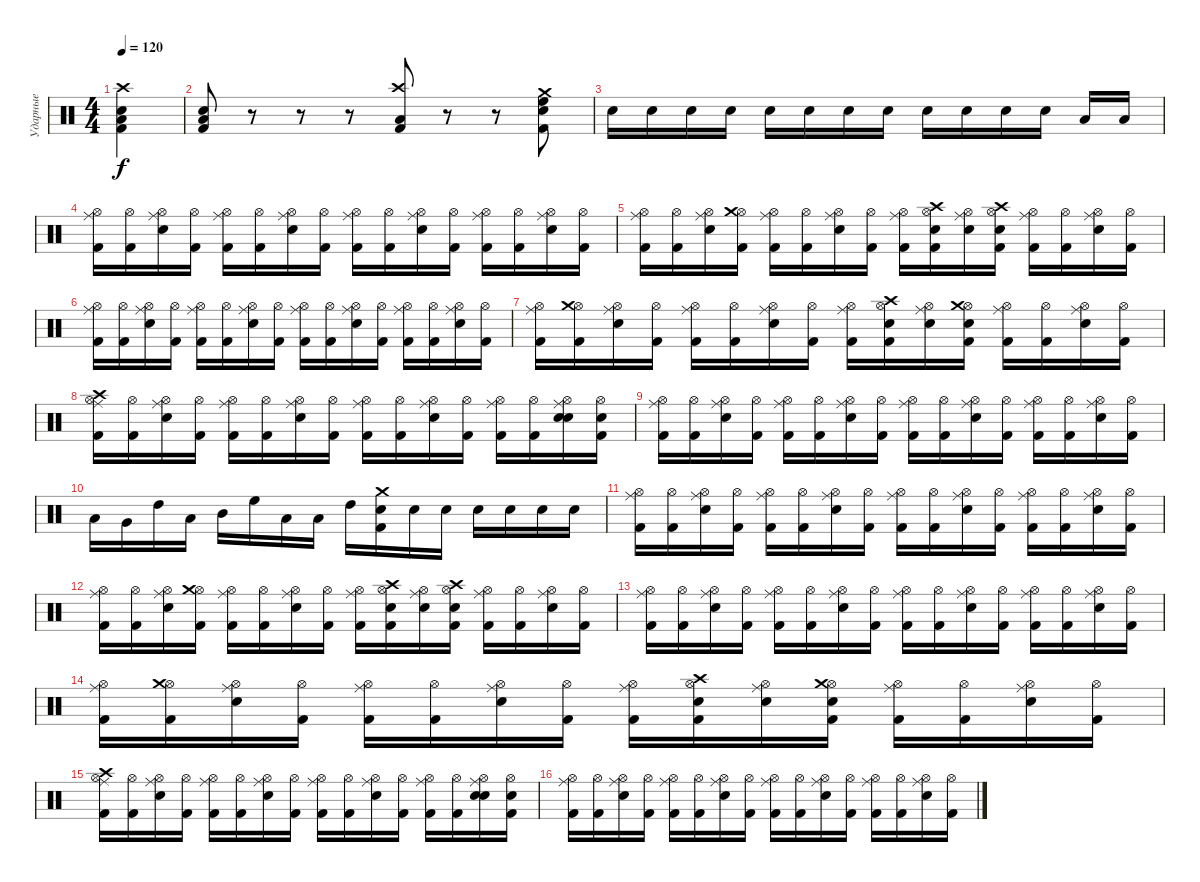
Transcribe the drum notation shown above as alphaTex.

\track ("Ударные" "Ударные") {instrument percussion}
\staff {score}
\articulation defaults
\ts (4 4)
\tempo 120
\clef neutral
\ks c
("Kick (hit) 2" "Snare (hit) 2" "Low Floor Tom (hit)" "Crash high (hit)").4{dy f} |
("Low Floor Tom (hit)" "Electric Snare (hit)" "Kick (hit) 2").8 r.8 r.8 r.8 ("Kick (hit) 2" "Low Tom (hit)" "Crash high (hit)").8 r.8 r.8 ("Kick (hit) 2" "Snare (hit) 2" "High Floor Tom (hit)" "Crash medium (hit)").8 |
"Electric Snare (hit)".16 "Electric Snare (hit)".16 "Electric Snare (hit)".16 "Electric Snare (hit)".16 "Electric Snare (hit)".16 "Electric Snare (hit)".16 "Electric Snare (hit)".16 "Electric Snare (hit)".16 "Electric Snare (hit)".16 "Electric Snare (hit)".16 "Electric Snare (hit)".16 "Electric Snare (hit)".16 "Low Floor Tom (hit)".16 "Low Tom (hit)".16 |
("Hi-Hat (open)" "Ride (middle)" "Kick (hit) 2").16 ("Hi-Hat (open)" "Kick (hit) 2").16 ("Hi-Hat (open)" "Ride (middle)" "Snare (hit) 2").16 ("Hi-Hat (open)" "Kick (hit) 2").16 ("Hi-Hat (open)" "Ride (middle)" "Kick (hit) 2").16 ("Hi-Hat (open)" "Kick (hit) 2").16 ("Hi-Hat (open)" "Ride (middle)" "Snare (hit) 2").16 ("Hi-Hat (open)" "Kick (hit) 2").16 ("Hi-Hat (open)" "Ride (middle)" "Kick (hit) 2").16 ("Hi-Hat (open)" "Kick (hit) 2").16 ("Hi-Hat (open)" "Ride (middle)" "Snare (hit) 2").16 ("Hi-Hat (open)" "Kick (hit) 2").16 ("Hi-Hat (open)" "Ride (middle)" "Kick (hit) 2").16 ("Hi-Hat (open)" "Kick (hit) 2").16 ("Hi-Hat (open)" "Ride (middle)" "Snare (hit) 2").16 ("Hi-Hat (open)" "Kick (hit) 2").16 |
("Hi-Hat (open)" "Ride (middle)" "Kick (hit) 2").16 ("Hi-Hat (open)" "Kick (hit) 2").16 ("Hi-Hat (open)" "Ride (middle)" "Snare (hit) 2").16 ("Hi-Hat (open)" "Kick (hit) 2" "Crash medium (hit)").16 ("Hi-Hat (open)" "Ride (middle)" "Kick (hit) 2").16 ("Hi-Hat (open)" "Kick (hit) 2").16 ("Hi-Hat (open)" "Ride (middle)" "Snare (hit) 2").16 ("Hi-Hat (open)" "Kick (hit) 2").16 ("Hi-Hat (open)" "Ride (middle)" "Kick (hit) 2").16 ("Hi-Hat (open)" "Kick (hit) 2" "Crash high (hit)" "Snare (hit) 2").16 ("Hi-Hat (open)" "Ride (middle)" "Snare (hit) 2").16 ("Hi-Hat (open)" "Kick (hit) 2" "Crash high (hit)" "Snare (hit) 2").16 ("Hi-Hat (open)" "Ride (middle)" "Kick (hit) 2").16 ("Hi-Hat (open)" "Kick (hit) 2").16 ("Hi-Hat (open)" "Ride (middle)" "Snare (hit) 2").16 ("Hi-Hat (open)" "Kick (hit) 2").16 |
("Hi-Hat (open)" "Ride (middle)" "Kick (hit) 2").16 ("Hi-Hat (open)" "Kick (hit) 2").16 ("Hi-Hat (open)" "Ride (middle)" "Snare (hit) 2").16 ("Hi-Hat (open)" "Kick (hit) 2").16 ("Hi-Hat (open)" "Ride (middle)" "Kick (hit) 2").16 ("Hi-Hat (open)" "Kick (hit) 2").16 ("Hi-Hat (open)" "Ride (middle)" "Snare (hit) 2").16 ("Hi-Hat (open)" "Kick (hit) 2").16 ("Hi-Hat (open)" "Ride (middle)" "Kick (hit) 2").16 ("Hi-Hat (open)" "Kick (hit) 2").16 ("Hi-Hat (open)" "Ride (middle)" "Snare (hit) 2").16 ("Hi-Hat (open)" "Kick (hit) 2").16 ("Hi-Hat (open)" "Ride (middle)" "Kick (hit) 2").16 ("Hi-Hat (open)" "Kick (hit) 2").16 ("Hi-Hat (open)" "Ride (middle)" "Snare (hit) 2").16 ("Hi-Hat (open)" "Kick (hit) 2").16 |
("Hi-Hat (open)" "Ride (middle)" "Kick (hit) 2").16 ("Hi-Hat (open)" "Kick (hit) 2" "Crash medium (hit)").16 ("Hi-Hat (open)" "Ride (middle)" "Snare (hit) 2").16 ("Hi-Hat (open)" "Kick (hit) 2").16 ("Hi-Hat (open)" "Ride (middle)" "Kick (hit) 2").16 ("Hi-Hat (open)" "Kick (hit) 2").16 ("Hi-Hat (open)" "Ride (middle)" "Snare (hit) 2").16 ("Hi-Hat (open)" "Kick (hit) 2").16 ("Hi-Hat (open)" "Ride (middle)" "Kick (hit) 2").16 ("Hi-Hat (open)" "Kick (hit) 2" "Electric Snare (hit)" "Crash high (hit)").16 ("Hi-Hat (open)" "Ride (middle)" "Snare (hit) 2").16 ("Hi-Hat (open)" "Kick (hit) 2" "Crash medium (hit)" "Electric Snare (hit)").16 ("Hi-Hat (open)" "Ride (middle)" "Kick (hit) 2").16 ("Hi-Hat (open)" "Kick (hit) 2").16 ("Hi-Hat (open)" "Ride (middle)" "Snare (hit) 2").16 ("Hi-Hat (open)" "Kick (hit) 2").16 |
("Hi-Hat (open)" "Ride (middle)" "Kick (hit) 2" "Crash high (hit)").16 ("Hi-Hat (open)" "Kick (hit) 2").16 ("Hi-Hat (open)" "Ride (middle)" "Snare (hit) 2").16 ("Hi-Hat (open)" "Kick (hit) 2").16 ("Hi-Hat (open)" "Ride (middle)" "Kick (hit) 2").16 ("Hi-Hat (open)" "Kick (hit) 2").16 ("Hi-Hat (open)" "Ride (middle)" "Snare (hit) 2").16 ("Hi-Hat (open)" "Kick (hit) 2").16 ("Hi-Hat (open)" "Ride (middle)" "Kick (hit) 2").16 ("Hi-Hat (open)" "Kick (hit) 2").16 ("Hi-Hat (open)" "Ride (middle)" "Snare (hit) 2").16 ("Hi-Hat (open)" "Kick (hit) 2").16 ("Hi-Hat (open)" "Ride (middle)" "Kick (hit) 2").16 ("Hi-Hat (open)" "Kick (hit) 2").16 ("Hi-Hat (open)" "Ride (middle)" "Snare (hit) 2" "Electric Snare (hit)").16 ("Hi-Hat (open)" "Kick (hit) 2" "Electric Snare (hit)").16 |
("Hi-Hat (open)" "Ride (middle)" "Kick (hit) 2").16 ("Hi-Hat (open)" "Kick (hit) 2").16 ("Hi-Hat (open)" "Ride (middle)" "Snare (hit) 2").16 ("Hi-Hat (open)" "Kick (hit) 2").16 ("Hi-Hat (open)" "Ride (middle)" "Kick (hit) 2").16 ("Hi-Hat (open)" "Kick (hit) 2").16 ("Hi-Hat (open)" "Ride (middle)" "Snare (hit) 2").16 ("Hi-Hat (open)" "Kick (hit) 2").16 ("Hi-Hat (open)" "Ride (middle)" "Kick (hit) 2").16 ("Hi-Hat (open)" "Kick (hit) 2").16 ("Hi-Hat (open)" "Ride (middle)" "Snare (hit) 2").16 ("Hi-Hat (open)" "Kick (hit) 2").16 ("Hi-Hat (open)" "Ride (middle)" "Kick (hit) 2").16 ("Hi-Hat (open)" "Kick (hit) 2").16 ("Hi-Hat (open)" "Ride (middle)" "Snare (hit) 2").16 ("Hi-Hat (open)" "Kick (hit) 2").16 |
"Low Floor Tom (hit)".16 "Very Low Tom (hit)".16 "High Tom (hit)".16 "Low Tom (hit)".16 "Mid Tom (hit)".16 "High Floor Tom (hit)".16 "Low Floor Tom (hit)".16 "Low Tom (hit)".16 "High Tom (hit)".16 ("Electric Snare (hit)" "Kick (hit) 2" "Crash medium (hit)").16 "Electric Snare (hit)".16 "Electric Snare (hit)".16 "Electric Snare (hit)".16 "Electric Snare (hit)".16 "Electric Snare (hit)".16 "Electric Snare (hit)".16 |
("Hi-Hat (open)" "Ride (middle)" "Kick (hit) 2").16 ("Hi-Hat (open)" "Kick (hit) 2").16 ("Hi-Hat (open)" "Ride (middle)" "Snare (hit) 2").16 ("Hi-Hat (open)" "Kick (hit) 2").16 ("Hi-Hat (open)" "Ride (middle)" "Kick (hit) 2").16 ("Hi-Hat (open)" "Kick (hit) 2").16 ("Hi-Hat (open)" "Ride (middle)" "Snare (hit) 2").16 ("Hi-Hat (open)" "Kick (hit) 2").16 ("Hi-Hat (open)" "Ride (middle)" "Kick (hit) 2").16 ("Hi-Hat (open)" "Kick (hit) 2").16 ("Hi-Hat (open)" "Ride (middle)" "Snare (hit) 2").16 ("Hi-Hat (open)" "Kick (hit) 2").16 ("Hi-Hat (open)" "Ride (middle)" "Kick (hit) 2").16 ("Hi-Hat (open)" "Kick (hit) 2").16 ("Hi-Hat (open)" "Ride (middle)" "Snare (hit) 2").16 ("Hi-Hat (open)" "Kick (hit) 2").16 |
("Hi-Hat (open)" "Ride (middle)" "Kick (hit) 2").16 ("Hi-Hat (open)" "Kick (hit) 2").16 ("Hi-Hat (open)" "Ride (middle)" "Snare (hit) 2").16 ("Hi-Hat (open)" "Kick (hit) 2" "Crash medium (hit)").16 ("Hi-Hat (open)" "Ride (middle)" "Kick (hit) 2").16 ("Hi-Hat (open)" "Kick (hit) 2").16 ("Hi-Hat (open)" "Ride (middle)" "Snare (hit) 2").16 ("Hi-Hat (open)" "Kick (hit) 2").16 ("Hi-Hat (open)" "Ride (middle)" "Kick (hit) 2").16 ("Hi-Hat (open)" "Kick (hit) 2" "Crash high (hit)" "Snare (hit) 2").16 ("Hi-Hat (open)" "Ride (middle)" "Snare (hit) 2").16 ("Hi-Hat (open)" "Kick (hit) 2" "Crash high (hit)" "Snare (hit) 2").16 ("Hi-Hat (open)" "Ride (middle)" "Kick (hit) 2").16 ("Hi-Hat (open)" "Kick (hit) 2").16 ("Hi-Hat (open)" "Ride (middle)" "Snare (hit) 2").16 ("Hi-Hat (open)" "Kick (hit) 2").16 |
("Hi-Hat (open)" "Ride (middle)" "Kick (hit) 2").16 ("Hi-Hat (open)" "Kick (hit) 2").16 ("Hi-Hat (open)" "Ride (middle)" "Snare (hit) 2").16 ("Hi-Hat (open)" "Kick (hit) 2").16 ("Hi-Hat (open)" "Ride (middle)" "Kick (hit) 2").16 ("Hi-Hat (open)" "Kick (hit) 2").16 ("Hi-Hat (open)" "Ride (middle)" "Snare (hit) 2").16 ("Hi-Hat (open)" "Kick (hit) 2").16 ("Hi-Hat (open)" "Ride (middle)" "Kick (hit) 2").16 ("Hi-Hat (open)" "Kick (hit) 2").16 ("Hi-Hat (open)" "Ride (middle)" "Snare (hit) 2").16 ("Hi-Hat (open)" "Kick (hit) 2").16 ("Hi-Hat (open)" "Ride (middle)" "Kick (hit) 2").16 ("Hi-Hat (open)" "Kick (hit) 2").16 ("Hi-Hat (open)" "Ride (middle)" "Snare (hit) 2").16 ("Hi-Hat (open)" "Kick (hit) 2").16 |
("Hi-Hat (open)" "Ride (middle)" "Kick (hit) 2").16 ("Hi-Hat (open)" "Kick (hit) 2" "Crash medium (hit)").16 ("Hi-Hat (open)" "Ride (middle)" "Snare (hit) 2").16 ("Hi-Hat (open)" "Kick (hit) 2").16 ("Hi-Hat (open)" "Ride (middle)" "Kick (hit) 2").16 ("Hi-Hat (open)" "Kick (hit) 2").16 ("Hi-Hat (open)" "Ride (middle)" "Snare (hit) 2").16 ("Hi-Hat (open)" "Kick (hit) 2").16 ("Hi-Hat (open)" "Ride (middle)" "Kick (hit) 2").16 ("Hi-Hat (open)" "Kick (hit) 2" "Electric Snare (hit)" "Crash high (hit)").16 ("Hi-Hat (open)" "Ride (middle)" "Snare (hit) 2").16 ("Hi-Hat (open)" "Kick (hit) 2" "Crash medium (hit)" "Electric Snare (hit)").16 ("Hi-Hat (open)" "Ride (middle)" "Kick (hit) 2").16 ("Hi-Hat (open)" "Kick (hit) 2").16 ("Hi-Hat (open)" "Ride (middle)" "Snare (hit) 2").16 ("Hi-Hat (open)" "Kick (hit) 2").16 |
("Hi-Hat (open)" "Ride (middle)" "Kick (hit) 2" "Crash high (hit)").16 ("Hi-Hat (open)" "Kick (hit) 2").16 ("Hi-Hat (open)" "Ride (middle)" "Snare (hit) 2").16 ("Hi-Hat (open)" "Kick (hit) 2").16 ("Hi-Hat (open)" "Ride (middle)" "Kick (hit) 2").16 ("Hi-Hat (open)" "Kick (hit) 2").16 ("Hi-Hat (open)" "Ride (middle)" "Snare (hit) 2").16 ("Hi-Hat (open)" "Kick (hit) 2").16 ("Hi-Hat (open)" "Ride (middle)" "Kick (hit) 2").16 ("Hi-Hat (open)" "Kick (hit) 2").16 ("Hi-Hat (open)" "Ride (middle)" "Snare (hit) 2").16 ("Hi-Hat (open)" "Kick (hit) 2").16 ("Hi-Hat (open)" "Ride (middle)" "Kick (hit) 2").16 ("Hi-Hat (open)" "Kick (hit) 2").16 ("Hi-Hat (open)" "Ride (middle)" "Snare (hit) 2" "Electric Snare (hit)").16 ("Hi-Hat (open)" "Kick (hit) 2" "Electric Snare (hit)").16 |
("Hi-Hat (open)" "Ride (middle)" "Kick (hit) 2").16 ("Hi-Hat (open)" "Kick (hit) 2").16 ("Hi-Hat (open)" "Ride (middle)" "Snare (hit) 2").16 ("Hi-Hat (open)" "Kick (hit) 2").16 ("Hi-Hat (open)" "Ride (middle)" "Kick (hit) 2").16 ("Hi-Hat (open)" "Kick (hit) 2").16 ("Hi-Hat (open)" "Ride (middle)" "Snare (hit) 2").16 ("Hi-Hat (open)" "Kick (hit) 2").16 ("Hi-Hat (open)" "Ride (middle)" "Kick (hit) 2").16 ("Hi-Hat (open)" "Kick (hit) 2").16 ("Hi-Hat (open)" "Ride (middle)" "Snare (hit) 2").16 ("Hi-Hat (open)" "Kick (hit) 2").16 ("Hi-Hat (open)" "Ride (middle)" "Kick (hit) 2").16 ("Hi-Hat (open)" "Kick (hit) 2").16 ("Hi-Hat (open)" "Ride (middle)" "Snare (hit) 2").16 ("Hi-Hat (open)" "Kick (hit) 2").16
